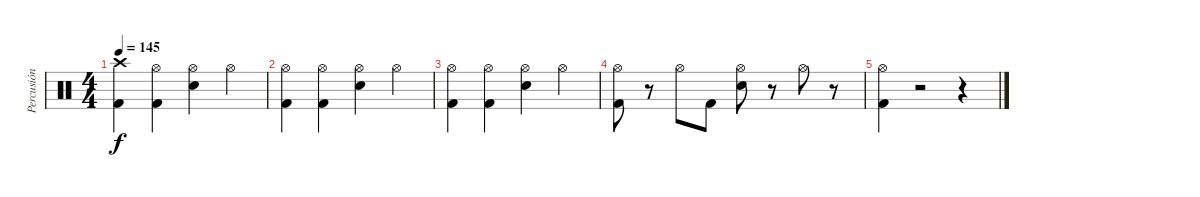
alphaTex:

\track ("Percusión" "Percusión") {instrument percussion}
\staff {score}
\articulation defaults
\ts (4 4)
\tempo 145
\clef neutral
\ks c
("Crash high (hit)" "Kick (hit) 2").4{dy f} ("Hi-Hat (open)" "Kick (hit) 2").4 ("Hi-Hat (open)" "Electric Snare (hit)").4 "Hi-Hat (open)".4 |
("Hi-Hat (open)" "Kick (hit) 2").4 ("Hi-Hat (open)" "Kick (hit) 2").4 ("Hi-Hat (open)" "Electric Snare (hit)").4 "Hi-Hat (open)".4 |
("Hi-Hat (open)" "Kick (hit) 2").4 ("Hi-Hat (open)" "Kick (hit) 2").4 ("Hi-Hat (open)" "Electric Snare (hit)").4 "Hi-Hat (open)".4 |
("Hi-Hat (open)" "Kick (hit) 2").8 r.8 "Hi-Hat (open)".8 "Kick (hit) 2".8 ("Hi-Hat (open)" "Electric Snare (hit)").8 r.8 "Hi-Hat (open)".8 r.8 |
("Hi-Hat (open)" "Kick (hit) 2").4 r.2 r.4
